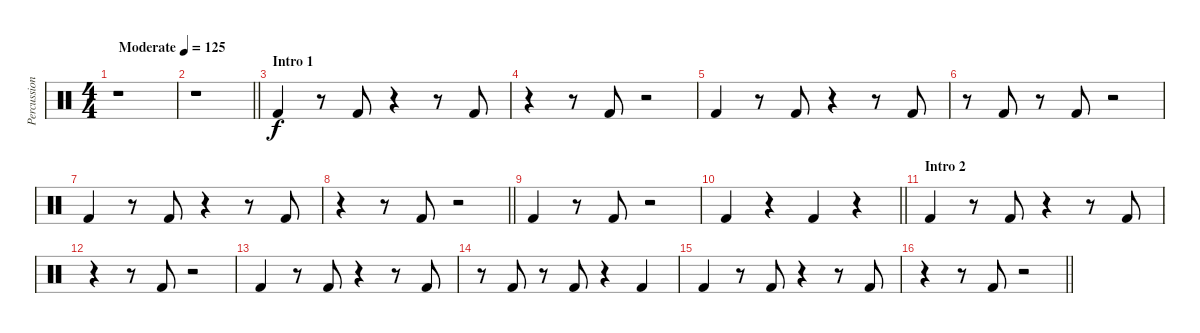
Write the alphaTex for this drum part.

\track ("Percussion (Bass Drum)" "Percussion") {instrument percussion}
\staff {score}
\articulation defaults
\ts (4 4)
\tempo (125 "Moderate")
\clef neutral
\ks c
r.1{dy f} |
\barLineRight lightlight
r.1 |
\section ("" "Intro 1")
"Kick (hit) 2".4 r.8 "Kick (hit) 2".8 r.4 r.8 "Kick (hit) 2".8 |
r.4 r.8 "Kick (hit) 2".8 r.2 |
"Kick (hit) 2".4 r.8 "Kick (hit) 2".8 r.4 r.8 "Kick (hit) 2".8 |
r.8 "Kick (hit) 2".8 r.8 "Kick (hit) 2".8 r.2 |
"Kick (hit) 2".4 r.8 "Kick (hit) 2".8 r.4 r.8 "Kick (hit) 2".8 |
\barLineRight lightlight
r.4 r.8 "Kick (hit) 2".8 r.2 |
"Kick (hit) 2".4 r.8 "Kick (hit) 2".8 r.2 |
\barLineRight lightlight "Kick (hit) 2".4
r.4 "Kick (hit) 2".4 r.4 |
\section ("" "Intro 2")
"Kick (hit) 2".4 r.8 "Kick (hit) 2".8 r.4 r.8 "Kick (hit) 2".8 |
r.4 r.8 "Kick (hit) 2".8 r.2 |
"Kick (hit) 2".4 r.8 "Kick (hit) 2".8 r.4 r.8 "Kick (hit) 2".8 |
r.8 "Kick (hit) 2".8 r.8 "Kick (hit) 2".8 r.4 "Kick (hit) 2".4 |
"Kick (hit) 2".4 r.8 "Kick (hit) 2".8 r.4 r.8 "Kick (hit) 2".8 |
\barLineRight lightlight
r.4 r.8 "Kick (hit) 2".8 r.2
